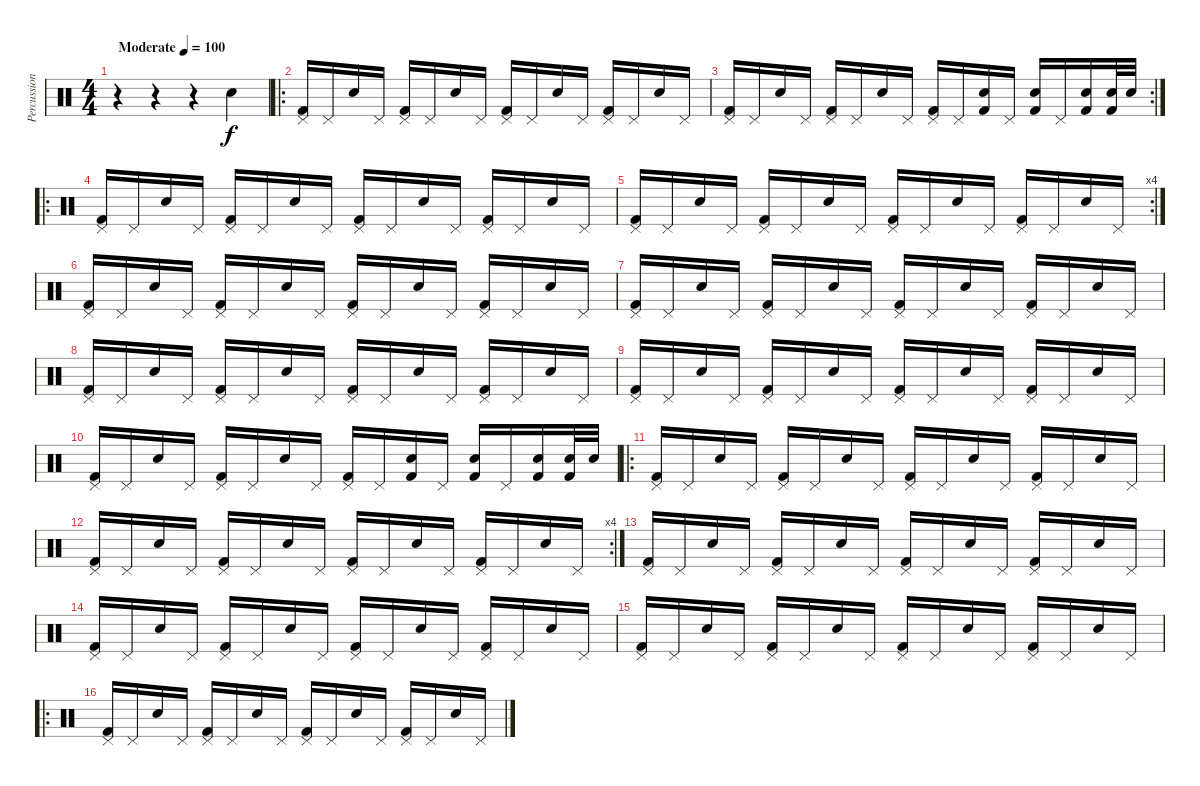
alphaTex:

\track ("Percussion" "Percussion") {instrument percussion}
\staff {score}
\articulation defaults
\ts (4 4)
\tempo (100 "Moderate")
\clef neutral
\ks c
r.4{dy f} r.4 r.4 "Electric Snare (hit)".4 |
\ro
("Pedal Hi-Hat (hit)" "Kick (hit) 2").16 "Pedal Hi-Hat (hit)".16 "Snare (hit) 2".16 "Pedal Hi-Hat (hit)".16 ("Pedal Hi-Hat (hit)" "Kick (hit) 2").16 "Pedal Hi-Hat (hit)".16 "Snare (hit) 2".16 "Pedal Hi-Hat (hit)".16 ("Pedal Hi-Hat (hit)" "Kick (hit) 2").16 "Pedal Hi-Hat (hit)".16 "Snare (hit) 2".16 "Pedal Hi-Hat (hit)".16 ("Pedal Hi-Hat (hit)" "Kick (hit) 2").16 "Pedal Hi-Hat (hit)".16 "Snare (hit) 2".16 "Pedal Hi-Hat (hit)".16 |
\rc 2
("Pedal Hi-Hat (hit)" "Kick (hit) 2").16 "Pedal Hi-Hat (hit)".16 "Snare (hit) 2".16 "Pedal Hi-Hat (hit)".16 ("Pedal Hi-Hat (hit)" "Kick (hit) 2").16 "Pedal Hi-Hat (hit)".16 "Snare (hit) 2".16 "Pedal Hi-Hat (hit)".16 ("Pedal Hi-Hat (hit)" "Kick (hit) 2").16 "Pedal Hi-Hat (hit)".16 ("Snare (hit) 2" "Kick (hit) 2").16 "Pedal Hi-Hat (hit)".16 ("Snare (hit) 2" "Kick (hit) 2").16 "Pedal Hi-Hat (hit)".16 ("Snare (hit) 2" "Kick (hit) 2").16 ("Snare (hit) 2" "Kick (hit) 2").32 "Snare (hit) 2".32 |
\ro
("Pedal Hi-Hat (hit)" "Kick (hit) 2").16 "Pedal Hi-Hat (hit)".16 "Snare (hit) 2".16 "Pedal Hi-Hat (hit)".16 ("Pedal Hi-Hat (hit)" "Kick (hit) 2").16 "Pedal Hi-Hat (hit)".16 "Snare (hit) 2".16 "Pedal Hi-Hat (hit)".16 ("Pedal Hi-Hat (hit)" "Kick (hit) 2").16 "Pedal Hi-Hat (hit)".16 "Snare (hit) 2".16 "Pedal Hi-Hat (hit)".16 ("Pedal Hi-Hat (hit)" "Kick (hit) 2").16 "Pedal Hi-Hat (hit)".16 "Snare (hit) 2".16 "Pedal Hi-Hat (hit)".16 |
\rc 4
("Pedal Hi-Hat (hit)" "Kick (hit) 2").16 "Pedal Hi-Hat (hit)".16 "Snare (hit) 2".16 "Pedal Hi-Hat (hit)".16 ("Pedal Hi-Hat (hit)" "Kick (hit) 2").16 "Pedal Hi-Hat (hit)".16 "Snare (hit) 2".16 "Pedal Hi-Hat (hit)".16 ("Pedal Hi-Hat (hit)" "Kick (hit) 2").16 "Pedal Hi-Hat (hit)".16 "Snare (hit) 2".16 "Pedal Hi-Hat (hit)".16 ("Pedal Hi-Hat (hit)" "Kick (hit) 2").16 "Pedal Hi-Hat (hit)".16 "Snare (hit) 2".16 "Pedal Hi-Hat (hit)".16 |
("Pedal Hi-Hat (hit)" "Kick (hit) 2").16 "Pedal Hi-Hat (hit)".16 "Snare (hit) 2".16 "Pedal Hi-Hat (hit)".16 ("Pedal Hi-Hat (hit)" "Kick (hit) 2").16 "Pedal Hi-Hat (hit)".16 "Snare (hit) 2".16 "Pedal Hi-Hat (hit)".16 ("Pedal Hi-Hat (hit)" "Kick (hit) 2").16 "Pedal Hi-Hat (hit)".16 "Snare (hit) 2".16 "Pedal Hi-Hat (hit)".16 ("Pedal Hi-Hat (hit)" "Kick (hit) 2").16 "Pedal Hi-Hat (hit)".16 "Snare (hit) 2".16 "Pedal Hi-Hat (hit)".16 |
("Pedal Hi-Hat (hit)" "Kick (hit) 2").16 "Pedal Hi-Hat (hit)".16 "Snare (hit) 2".16 "Pedal Hi-Hat (hit)".16 ("Pedal Hi-Hat (hit)" "Kick (hit) 2").16 "Pedal Hi-Hat (hit)".16 "Snare (hit) 2".16 "Pedal Hi-Hat (hit)".16 ("Pedal Hi-Hat (hit)" "Kick (hit) 2").16 "Pedal Hi-Hat (hit)".16 "Snare (hit) 2".16 "Pedal Hi-Hat (hit)".16 ("Pedal Hi-Hat (hit)" "Kick (hit) 2").16 "Pedal Hi-Hat (hit)".16 "Snare (hit) 2".16 "Pedal Hi-Hat (hit)".16 |
("Pedal Hi-Hat (hit)" "Kick (hit) 2").16 "Pedal Hi-Hat (hit)".16 "Snare (hit) 2".16 "Pedal Hi-Hat (hit)".16 ("Pedal Hi-Hat (hit)" "Kick (hit) 2").16 "Pedal Hi-Hat (hit)".16 "Snare (hit) 2".16 "Pedal Hi-Hat (hit)".16 ("Pedal Hi-Hat (hit)" "Kick (hit) 2").16 "Pedal Hi-Hat (hit)".16 "Snare (hit) 2".16 "Pedal Hi-Hat (hit)".16 ("Pedal Hi-Hat (hit)" "Kick (hit) 2").16 "Pedal Hi-Hat (hit)".16 "Snare (hit) 2".16 "Pedal Hi-Hat (hit)".16 |
("Pedal Hi-Hat (hit)" "Kick (hit) 2").16 "Pedal Hi-Hat (hit)".16 "Snare (hit) 2".16 "Pedal Hi-Hat (hit)".16 ("Pedal Hi-Hat (hit)" "Kick (hit) 2").16 "Pedal Hi-Hat (hit)".16 "Snare (hit) 2".16 "Pedal Hi-Hat (hit)".16 ("Pedal Hi-Hat (hit)" "Kick (hit) 2").16 "Pedal Hi-Hat (hit)".16 "Snare (hit) 2".16 "Pedal Hi-Hat (hit)".16 ("Pedal Hi-Hat (hit)" "Kick (hit) 2").16 "Pedal Hi-Hat (hit)".16 "Snare (hit) 2".16 "Pedal Hi-Hat (hit)".16 |
("Pedal Hi-Hat (hit)" "Kick (hit) 2").16 "Pedal Hi-Hat (hit)".16 "Snare (hit) 2".16 "Pedal Hi-Hat (hit)".16 ("Pedal Hi-Hat (hit)" "Kick (hit) 2").16 "Pedal Hi-Hat (hit)".16 "Snare (hit) 2".16 "Pedal Hi-Hat (hit)".16 ("Pedal Hi-Hat (hit)" "Kick (hit) 2").16 "Pedal Hi-Hat (hit)".16 ("Snare (hit) 2" "Kick (hit) 2").16 "Pedal Hi-Hat (hit)".16 ("Snare (hit) 2" "Kick (hit) 2").16 "Pedal Hi-Hat (hit)".16 ("Snare (hit) 2" "Kick (hit) 2").16 ("Snare (hit) 2" "Kick (hit) 2").32 "Snare (hit) 2".32 |
\ro
("Pedal Hi-Hat (hit)" "Kick (hit) 2").16 "Pedal Hi-Hat (hit)".16 "Snare (hit) 2".16 "Pedal Hi-Hat (hit)".16 ("Pedal Hi-Hat (hit)" "Kick (hit) 2").16 "Pedal Hi-Hat (hit)".16 "Snare (hit) 2".16 "Pedal Hi-Hat (hit)".16 ("Pedal Hi-Hat (hit)" "Kick (hit) 2").16 "Pedal Hi-Hat (hit)".16 "Snare (hit) 2".16 "Pedal Hi-Hat (hit)".16 ("Pedal Hi-Hat (hit)" "Kick (hit) 2").16 "Pedal Hi-Hat (hit)".16 "Snare (hit) 2".16 "Pedal Hi-Hat (hit)".16 |
\rc 4
("Pedal Hi-Hat (hit)" "Kick (hit) 2").16 "Pedal Hi-Hat (hit)".16 "Snare (hit) 2".16 "Pedal Hi-Hat (hit)".16 ("Pedal Hi-Hat (hit)" "Kick (hit) 2").16 "Pedal Hi-Hat (hit)".16 "Snare (hit) 2".16 "Pedal Hi-Hat (hit)".16 ("Pedal Hi-Hat (hit)" "Kick (hit) 2").16 "Pedal Hi-Hat (hit)".16 "Snare (hit) 2".16 "Pedal Hi-Hat (hit)".16 ("Pedal Hi-Hat (hit)" "Kick (hit) 2").16 "Pedal Hi-Hat (hit)".16 "Snare (hit) 2".16 "Pedal Hi-Hat (hit)".16 |
("Pedal Hi-Hat (hit)" "Kick (hit) 2").16 "Pedal Hi-Hat (hit)".16 "Snare (hit) 2".16 "Pedal Hi-Hat (hit)".16 ("Pedal Hi-Hat (hit)" "Kick (hit) 2").16 "Pedal Hi-Hat (hit)".16 "Snare (hit) 2".16 "Pedal Hi-Hat (hit)".16 ("Pedal Hi-Hat (hit)" "Kick (hit) 2").16 "Pedal Hi-Hat (hit)".16 "Snare (hit) 2".16 "Pedal Hi-Hat (hit)".16 ("Pedal Hi-Hat (hit)" "Kick (hit) 2").16 "Pedal Hi-Hat (hit)".16 "Snare (hit) 2".16 "Pedal Hi-Hat (hit)".16 |
("Pedal Hi-Hat (hit)" "Kick (hit) 2").16 "Pedal Hi-Hat (hit)".16 "Snare (hit) 2".16 "Pedal Hi-Hat (hit)".16 ("Pedal Hi-Hat (hit)" "Kick (hit) 2").16 "Pedal Hi-Hat (hit)".16 "Snare (hit) 2".16 "Pedal Hi-Hat (hit)".16 ("Pedal Hi-Hat (hit)" "Kick (hit) 2").16 "Pedal Hi-Hat (hit)".16 "Snare (hit) 2".16 "Pedal Hi-Hat (hit)".16 ("Pedal Hi-Hat (hit)" "Kick (hit) 2").16 "Pedal Hi-Hat (hit)".16 "Snare (hit) 2".16 "Pedal Hi-Hat (hit)".16 |
("Pedal Hi-Hat (hit)" "Kick (hit) 2").16 "Pedal Hi-Hat (hit)".16 "Snare (hit) 2".16 "Pedal Hi-Hat (hit)".16 ("Pedal Hi-Hat (hit)" "Kick (hit) 2").16 "Pedal Hi-Hat (hit)".16 "Snare (hit) 2".16 "Pedal Hi-Hat (hit)".16 ("Pedal Hi-Hat (hit)" "Kick (hit) 2").16 "Pedal Hi-Hat (hit)".16 "Snare (hit) 2".16 "Pedal Hi-Hat (hit)".16 ("Pedal Hi-Hat (hit)" "Kick (hit) 2").16 "Pedal Hi-Hat (hit)".16 "Snare (hit) 2".16 "Pedal Hi-Hat (hit)".16 |
\ro
("Pedal Hi-Hat (hit)" "Kick (hit) 2").16 "Pedal Hi-Hat (hit)".16 "Snare (hit) 2".16 "Pedal Hi-Hat (hit)".16 ("Pedal Hi-Hat (hit)" "Kick (hit) 2").16 "Pedal Hi-Hat (hit)".16 "Snare (hit) 2".16 "Pedal Hi-Hat (hit)".16 ("Pedal Hi-Hat (hit)" "Kick (hit) 2").16 "Pedal Hi-Hat (hit)".16 "Snare (hit) 2".16 "Pedal Hi-Hat (hit)".16 ("Pedal Hi-Hat (hit)" "Kick (hit) 2").16 "Pedal Hi-Hat (hit)".16 "Snare (hit) 2".16 "Pedal Hi-Hat (hit)".16
